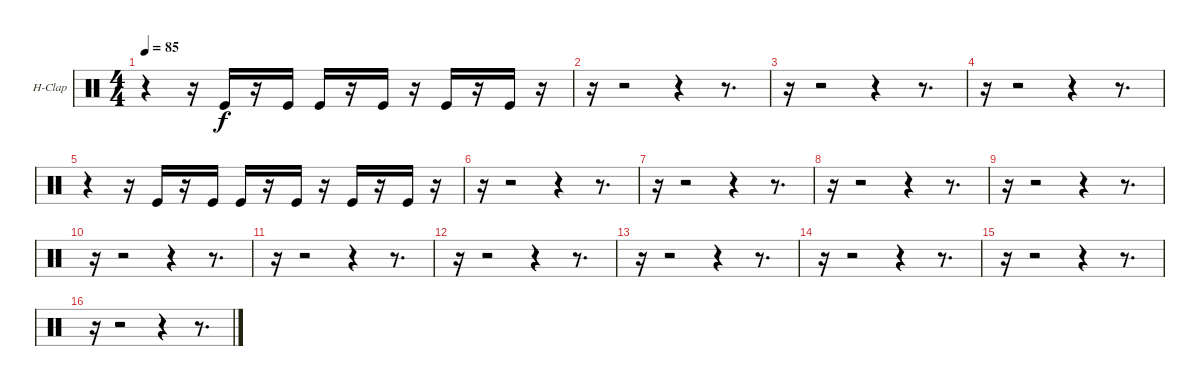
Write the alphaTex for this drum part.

\bracketExtendMode groupsimilarinstruments
\firstSystemTrackNameOrientation horizontal
\otherSystemsTrackNameOrientation horizontal
\track ("Hand Clap" "H-Clap") {instrument percussion}
\staff {score}
\articulation defaults
\ts (4 4)
\tempo 85
\clef neutral
\ks c
r.4{dy f} r.16 "Kick (hit)".16 r.16 "Kick (hit)".16 "Kick (hit)".16 r.16 "Kick (hit)".16 r.16 "Kick (hit)".16 r.16 "Kick (hit)".16 r.16 |
r.16 r.2 r.4 r.8{d} |
r.16 r.2 r.4 r.8{d} |
r.16 r.2 r.4 r.8{d} |
r.4 r.16 "Kick (hit)".16 r.16 "Kick (hit)".16 "Kick (hit)".16 r.16 "Kick (hit)".16 r.16 "Kick (hit)".16 r.16 "Kick (hit)".16 r.16 |
r.16 r.2 r.4 r.8{d} |
r.16 r.2 r.4 r.8{d} |
r.16 r.2 r.4 r.8{d} |
r.16 r.2 r.4 r.8{d} |
r.16 r.2 r.4 r.8{d} |
r.16 r.2 r.4 r.8{d} |
r.16 r.2 r.4 r.8{d} |
r.16 r.2 r.4 r.8{d} |
r.16 r.2 r.4 r.8{d} |
r.16 r.2 r.4 r.8{d} |
r.16 r.2 r.4 r.8{d}
